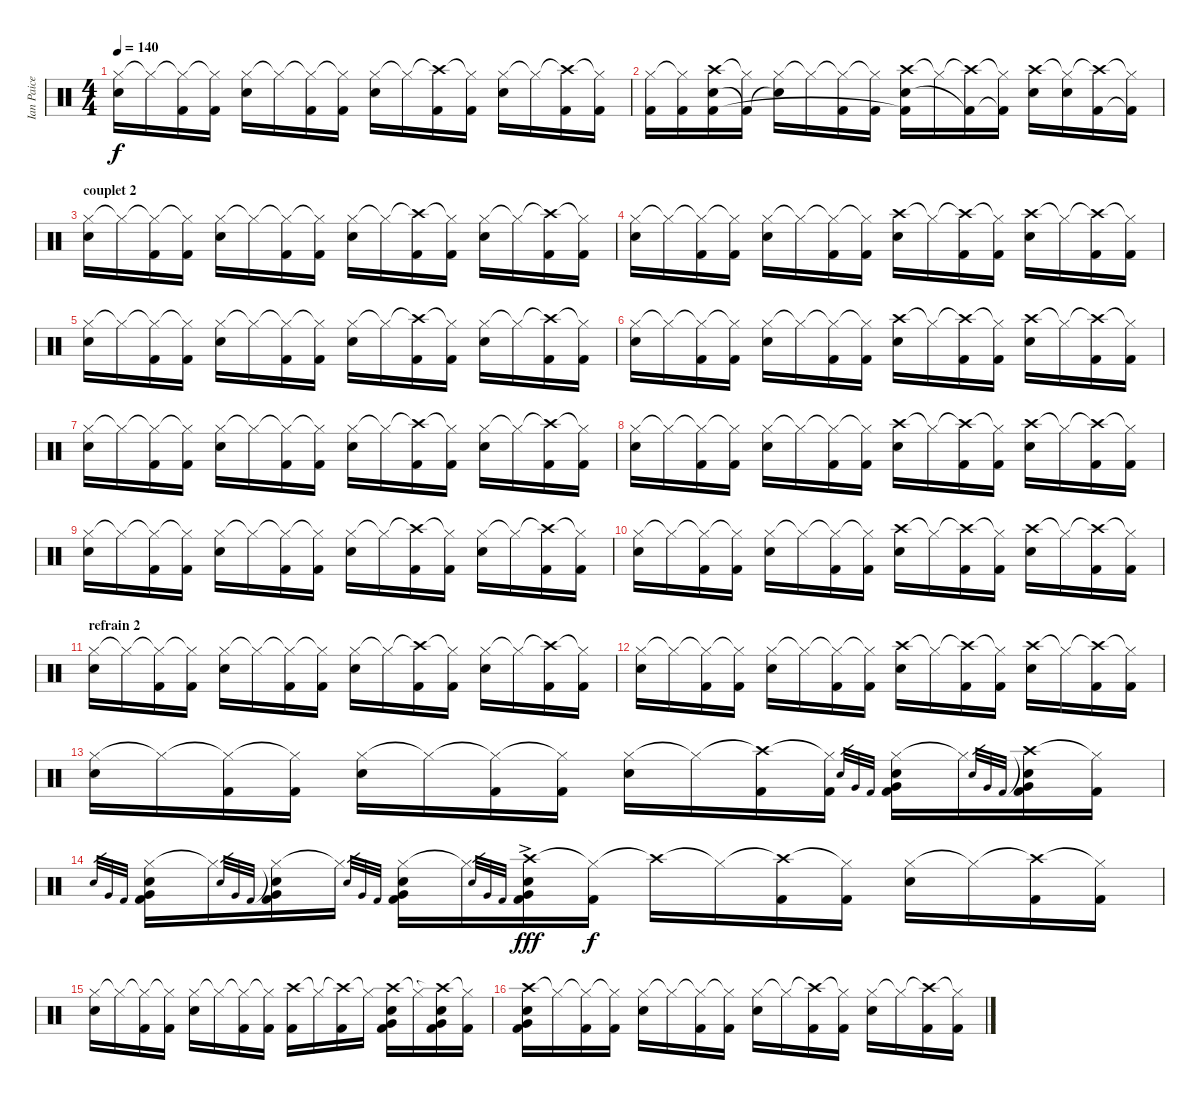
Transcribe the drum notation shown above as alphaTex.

\track ("Ian Paice" "Ian Paice") {instrument percussion}
\staff {score}
\articulation defaults
\ts (4 4)
\tempo 140
\clef neutral
\ks c
("Hi-Hat (closed)" "Snare (hit) 2").16{dy f} "Hi-Hat (closed)"{t}.16 ("Hi-Hat (closed)"{t} "Kick (hit) 2").16 ("Hi-Hat (closed)"{t} "Kick (hit) 2").16 ("Hi-Hat (closed)" "Snare (hit) 2").16 "Hi-Hat (closed)"{t}.16 ("Hi-Hat (closed)"{t} "Kick (hit) 2").16 ("Hi-Hat (closed)"{t} "Kick (hit) 2").16 ("Hi-Hat (closed)" "Snare (hit) 2").16 "Hi-Hat (closed)"{t}.16 ("Crash high (hit)"{t} "Kick (hit) 2").16 ("Hi-Hat (closed)"{t} "Kick (hit) 2").16 ("Hi-Hat (closed)" "Snare (hit) 2").16 "Hi-Hat (closed)"{t}.16 ("Crash high (hit)"{t} "Kick (hit) 2").16 ("Hi-Hat (closed)"{t} "Kick (hit) 2").16 |
("Hi-Hat (closed)" "Kick (hit) 2").16 ("Hi-Hat (closed)"{t} "Kick (hit) 2").16 ("Crash high (hit)" "Snare (hit) 2" "Kick (hit) 2").16 ("Hi-Hat (closed)"{t} "Kick (hit) 2"{t}).16 ("Hi-Hat (closed)" "Snare (hit) 2"{t}).16 "Hi-Hat (closed)"{t}.16 ("Hi-Hat (closed)"{t} "Kick (hit) 2").16 ("Hi-Hat (closed)"{t} "Kick (hit) 2").16 ("Crash high (hit)" "Snare (hit) 2" "Kick (hit) 2"{t}).16 "Hi-Hat (closed)"{t}.16 ("Crash high (hit)"{t} "Kick (hit) 2"{t}).16 ("Hi-Hat (closed)"{t} "Kick (hit) 2"{t}).16 ("Crash high (hit)" "Snare (hit) 2").16 ("Hi-Hat (closed)"{t} "Snare (hit) 2").16 ("Crash high (hit)"{t} "Kick (hit) 2").16 ("Hi-Hat (closed)"{t} "Kick (hit) 2"{t}).16 |
\section ("" "couplet 2")
("Hi-Hat (closed)" "Snare (hit) 2").16 "Hi-Hat (closed)"{t}.16 ("Hi-Hat (closed)"{t} "Kick (hit) 2").16 ("Hi-Hat (closed)"{t} "Kick (hit) 2").16 ("Hi-Hat (closed)" "Snare (hit) 2").16 "Hi-Hat (closed)"{t}.16 ("Hi-Hat (closed)"{t} "Kick (hit) 2").16 ("Hi-Hat (closed)"{t} "Kick (hit) 2").16 ("Hi-Hat (closed)" "Snare (hit) 2").16 "Hi-Hat (closed)"{t}.16 ("Crash high (hit)"{t} "Kick (hit) 2").16 ("Hi-Hat (closed)"{t} "Kick (hit) 2").16 ("Hi-Hat (closed)" "Snare (hit) 2").16 "Hi-Hat (closed)"{t}.16 ("Crash high (hit)"{t} "Kick (hit) 2").16 ("Hi-Hat (closed)"{t} "Kick (hit) 2").16 |
("Hi-Hat (closed)" "Snare (hit) 2").16 "Hi-Hat (closed)"{t}.16 ("Hi-Hat (closed)"{t} "Kick (hit) 2").16 ("Hi-Hat (closed)"{t} "Kick (hit) 2").16 ("Hi-Hat (closed)" "Snare (hit) 2").16 "Hi-Hat (closed)"{t}.16 ("Hi-Hat (closed)"{t} "Kick (hit) 2").16 ("Hi-Hat (closed)"{t} "Kick (hit) 2").16 ("Crash high (hit)" "Snare (hit) 2").16 "Hi-Hat (closed)"{t}.16 ("Crash high (hit)"{t} "Kick (hit) 2").16 ("Hi-Hat (closed)"{t} "Kick (hit) 2").16 ("Crash high (hit)" "Snare (hit) 2").16 "Hi-Hat (closed)"{t}.16 ("Crash high (hit)"{t} "Kick (hit) 2").16 ("Hi-Hat (closed)"{t} "Kick (hit) 2").16 |
("Hi-Hat (closed)" "Snare (hit) 2").16 "Hi-Hat (closed)"{t}.16 ("Hi-Hat (closed)"{t} "Kick (hit) 2").16 ("Hi-Hat (closed)"{t} "Kick (hit) 2").16 ("Hi-Hat (closed)" "Snare (hit) 2").16 "Hi-Hat (closed)"{t}.16 ("Hi-Hat (closed)"{t} "Kick (hit) 2").16 ("Hi-Hat (closed)"{t} "Kick (hit) 2").16 ("Hi-Hat (closed)" "Snare (hit) 2").16 "Hi-Hat (closed)"{t}.16 ("Crash high (hit)"{t} "Kick (hit) 2").16 ("Hi-Hat (closed)"{t} "Kick (hit) 2").16 ("Hi-Hat (closed)" "Snare (hit) 2").16 "Hi-Hat (closed)"{t}.16 ("Crash high (hit)"{t} "Kick (hit) 2").16 ("Hi-Hat (closed)"{t} "Kick (hit) 2").16 |
("Hi-Hat (closed)" "Snare (hit) 2").16 "Hi-Hat (closed)"{t}.16 ("Hi-Hat (closed)"{t} "Kick (hit) 2").16 ("Hi-Hat (closed)"{t} "Kick (hit) 2").16 ("Hi-Hat (closed)" "Snare (hit) 2").16 "Hi-Hat (closed)"{t}.16 ("Hi-Hat (closed)"{t} "Kick (hit) 2").16 ("Hi-Hat (closed)"{t} "Kick (hit) 2").16 ("Crash high (hit)" "Snare (hit) 2").16 "Hi-Hat (closed)"{t}.16 ("Crash high (hit)"{t} "Kick (hit) 2").16 ("Hi-Hat (closed)"{t} "Kick (hit) 2").16 ("Crash high (hit)" "Snare (hit) 2").16 "Hi-Hat (closed)"{t}.16 ("Crash high (hit)"{t} "Kick (hit) 2").16 ("Hi-Hat (closed)"{t} "Kick (hit) 2").16 |
("Hi-Hat (closed)" "Snare (hit) 2").16 "Hi-Hat (closed)"{t}.16 ("Hi-Hat (closed)"{t} "Kick (hit) 2").16 ("Hi-Hat (closed)"{t} "Kick (hit) 2").16 ("Hi-Hat (closed)" "Snare (hit) 2").16 "Hi-Hat (closed)"{t}.16 ("Hi-Hat (closed)"{t} "Kick (hit) 2").16 ("Hi-Hat (closed)"{t} "Kick (hit) 2").16 ("Hi-Hat (closed)" "Snare (hit) 2").16 "Hi-Hat (closed)"{t}.16 ("Crash high (hit)"{t} "Kick (hit) 2").16 ("Hi-Hat (closed)"{t} "Kick (hit) 2").16 ("Hi-Hat (closed)" "Snare (hit) 2").16 "Hi-Hat (closed)"{t}.16 ("Crash high (hit)"{t} "Kick (hit) 2").16 ("Hi-Hat (closed)"{t} "Kick (hit) 2").16 |
("Hi-Hat (closed)" "Snare (hit) 2").16 "Hi-Hat (closed)"{t}.16 ("Hi-Hat (closed)"{t} "Kick (hit) 2").16 ("Hi-Hat (closed)"{t} "Kick (hit) 2").16 ("Hi-Hat (closed)" "Snare (hit) 2").16 "Hi-Hat (closed)"{t}.16 ("Hi-Hat (closed)"{t} "Kick (hit) 2").16 ("Hi-Hat (closed)"{t} "Kick (hit) 2").16 ("Crash high (hit)" "Snare (hit) 2").16 "Hi-Hat (closed)"{t}.16 ("Crash high (hit)"{t} "Kick (hit) 2").16 ("Hi-Hat (closed)"{t} "Kick (hit) 2").16 ("Crash high (hit)" "Snare (hit) 2").16 "Hi-Hat (closed)"{t}.16 ("Crash high (hit)"{t} "Kick (hit) 2").16 ("Hi-Hat (closed)"{t} "Kick (hit) 2").16 |
("Hi-Hat (closed)" "Snare (hit) 2").16 "Hi-Hat (closed)"{t}.16 ("Hi-Hat (closed)"{t} "Kick (hit) 2").16 ("Hi-Hat (closed)"{t} "Kick (hit) 2").16 ("Hi-Hat (closed)" "Snare (hit) 2").16 "Hi-Hat (closed)"{t}.16 ("Hi-Hat (closed)"{t} "Kick (hit) 2").16 ("Hi-Hat (closed)"{t} "Kick (hit) 2").16 ("Hi-Hat (closed)" "Snare (hit) 2").16 "Hi-Hat (closed)"{t}.16 ("Crash high (hit)"{t} "Kick (hit) 2").16 ("Hi-Hat (closed)"{t} "Kick (hit) 2").16 ("Hi-Hat (closed)" "Snare (hit) 2").16 "Hi-Hat (closed)"{t}.16 ("Crash high (hit)"{t} "Kick (hit) 2").16 ("Hi-Hat (closed)"{t} "Kick (hit) 2").16 |
("Hi-Hat (closed)" "Snare (hit) 2").16 "Hi-Hat (closed)"{t}.16 ("Hi-Hat (closed)"{t} "Kick (hit) 2").16 ("Hi-Hat (closed)"{t} "Kick (hit) 2").16 ("Hi-Hat (closed)" "Snare (hit) 2").16 "Hi-Hat (closed)"{t}.16 ("Hi-Hat (closed)"{t} "Kick (hit) 2").16 ("Hi-Hat (closed)"{t} "Kick (hit) 2").16 ("Crash high (hit)" "Snare (hit) 2").16 "Hi-Hat (closed)"{t}.16 ("Crash high (hit)"{t} "Kick (hit) 2").16 ("Hi-Hat (closed)"{t} "Kick (hit) 2").16 ("Crash high (hit)" "Snare (hit) 2").16 "Hi-Hat (closed)"{t}.16 ("Crash high (hit)"{t} "Kick (hit) 2").16 ("Hi-Hat (closed)"{t} "Kick (hit) 2").16 |
\section ("" "refrain 2")
("Hi-Hat (closed)" "Snare (hit) 2").16 "Hi-Hat (closed)"{t}.16 ("Hi-Hat (closed)"{t} "Kick (hit) 2").16 ("Hi-Hat (closed)"{t} "Kick (hit) 2").16 ("Hi-Hat (closed)" "Snare (hit) 2").16 "Hi-Hat (closed)"{t}.16 ("Hi-Hat (closed)"{t} "Kick (hit) 2").16 ("Hi-Hat (closed)"{t} "Kick (hit) 2").16 ("Hi-Hat (closed)" "Snare (hit) 2").16 "Hi-Hat (closed)"{t}.16 ("Crash high (hit)"{t} "Kick (hit) 2").16 ("Hi-Hat (closed)"{t} "Kick (hit) 2").16 ("Hi-Hat (closed)" "Snare (hit) 2").16 "Hi-Hat (closed)"{t}.16 ("Crash high (hit)"{t} "Kick (hit) 2").16 ("Hi-Hat (closed)"{t} "Kick (hit) 2").16 |
("Hi-Hat (closed)" "Snare (hit) 2").16 "Hi-Hat (closed)"{t}.16 ("Hi-Hat (closed)"{t} "Kick (hit) 2").16 ("Hi-Hat (closed)"{t} "Kick (hit) 2").16 ("Hi-Hat (closed)" "Snare (hit) 2").16 "Hi-Hat (closed)"{t}.16 ("Hi-Hat (closed)"{t} "Kick (hit) 2").16 ("Hi-Hat (closed)"{t} "Kick (hit) 2").16 ("Crash high (hit)" "Snare (hit) 2").16 "Hi-Hat (closed)"{t}.16 ("Crash high (hit)"{t} "Kick (hit) 2").16 ("Hi-Hat (closed)"{t} "Kick (hit) 2").16 ("Crash high (hit)" "Snare (hit) 2").16 "Hi-Hat (closed)"{t}.16 ("Crash high (hit)"{t} "Kick (hit) 2").16 ("Hi-Hat (closed)"{t} "Kick (hit) 2").16 |
("Hi-Hat (closed)" "Snare (hit) 2").16 "Hi-Hat (closed)"{t}.16 ("Hi-Hat (closed)"{t} "Kick (hit) 2").16 ("Hi-Hat (closed)"{t} "Kick (hit) 2").16 ("Hi-Hat (closed)" "Snare (hit) 2").16 "Hi-Hat (closed)"{t}.16 ("Hi-Hat (closed)"{t} "Kick (hit) 2").16 ("Hi-Hat (closed)"{t} "Kick (hit) 2").16 ("Hi-Hat (closed)" "Snare (hit) 2").16 "Hi-Hat (closed)"{t}.16 ("Crash high (hit)"{t} "Kick (hit) 2").16 ("Hi-Hat (closed)"{t} "Kick (hit) 2").16 "Snare (hit) 2".32{gr} "Very Low Tom (hit)".32{gr} "Kick (hit) 2".32{gr} ("Hi-Hat (closed)" "Snare (hit) 2" "Very Low Tom (hit)" "Kick (hit) 2").16 "Hi-Hat (closed)"{t}.16 "Snare (hit) 2".32{gr} "Very Low Tom (hit)".32{gr} "Kick (hit) 2".32{gr} ("Crash high (hit)"{t} "Snare (hit) 2" "Very Low Tom (hit)" "Kick (hit) 2").16 ("Hi-Hat (closed)"{t} "Kick (hit) 2").16 |
"Snare (hit) 2".32{gr} "Very Low Tom (hit)".32{gr} "Kick (hit) 2".32{gr} ("Hi-Hat (closed)" "Snare (hit) 2" "Very Low Tom (hit)" "Kick (hit) 2").16 "Hi-Hat (closed)"{t}.16 "Snare (hit) 2".32{gr} "Very Low Tom (hit)".32{gr} "Kick (hit) 2".32{gr} ("Hi-Hat (closed)"{t} "Snare (hit) 2" "Very Low Tom (hit)" "Kick (hit) 2").16 "Hi-Hat (closed)"{t}.16 "Snare (hit) 2".32{gr} "Very Low Tom (hit)".32{gr} "Kick (hit) 2".32{gr} ("Hi-Hat (closed)" "Snare (hit) 2" "Very Low Tom (hit)" "Kick (hit) 2").16 "Hi-Hat (closed)"{t}.16 "Snare (hit) 2".32{gr} "Very Low Tom (hit)".32{gr} "Kick (hit) 2".32{gr} ("Crash high (hit)"{ac} "Snare (hit) 2" "Very Low Tom (hit)" "Kick (hit) 2").16{dy fff} ("Hi-Hat (closed)"{t} "Kick (hit) 2").16{dy f} "Crash high (hit)"{t}.16 "Hi-Hat (closed)"{t}.16 ("Crash high (hit)"{t} "Kick (hit) 2").16 ("Hi-Hat (closed)"{t} "Kick (hit) 2").16 ("Hi-Hat (closed)" "Snare (hit) 2").16 "Hi-Hat (closed)"{t}.16 ("Crash high (hit)"{t} "Kick (hit) 2").16 ("Hi-Hat (closed)"{t} "Kick (hit) 2").16 |
("Hi-Hat (closed)" "Snare (hit) 2").16 "Hi-Hat (closed)"{t}.16 ("Hi-Hat (closed)"{t} "Kick (hit) 2").16 ("Hi-Hat (closed)"{t} "Kick (hit) 2").16 ("Hi-Hat (closed)" "Snare (hit) 2").16 "Hi-Hat (closed)"{t}.16 ("Hi-Hat (closed)"{t} "Kick (hit) 2").16 ("Hi-Hat (closed)"{t} "Kick (hit) 2").16 ("Crash high (hit)" "Kick (hit) 2").16 "Hi-Hat (closed)"{t}.16 ("Crash high (hit)"{t} "Kick (hit) 2").16 "Hi-Hat (closed)"{t}.16 ("Crash high (hit)" "Snare (hit) 2" "Very Low Tom (hit)" "Kick (hit) 2").16 "Hi-Hat (closed)"{t}.16 ("Crash high (hit)"{t} "Snare (hit) 2" "Very Low Tom (hit)" "Kick (hit) 2").16 ("Hi-Hat (closed)"{t} "Kick (hit) 2").16 |
("Crash high (hit)" "Snare (hit) 2" "Very Low Tom (hit)" "Kick (hit) 2").16 "Hi-Hat (closed)"{t}.16 ("Hi-Hat (closed)"{t} "Kick (hit) 2").16 ("Hi-Hat (closed)"{t} "Kick (hit) 2").16 ("Hi-Hat (closed)" "Snare (hit) 2").16 "Hi-Hat (closed)"{t}.16 ("Hi-Hat (closed)"{t} "Kick (hit) 2").16 ("Hi-Hat (closed)"{t} "Kick (hit) 2").16 ("Hi-Hat (closed)" "Snare (hit) 2").16 "Hi-Hat (closed)"{t}.16 ("Crash high (hit)"{t} "Kick (hit) 2").16 ("Hi-Hat (closed)"{t} "Kick (hit) 2").16 ("Hi-Hat (closed)" "Snare (hit) 2").16 "Hi-Hat (closed)"{t}.16 ("Crash high (hit)"{t} "Kick (hit) 2").16 ("Hi-Hat (closed)"{t} "Kick (hit) 2").16
